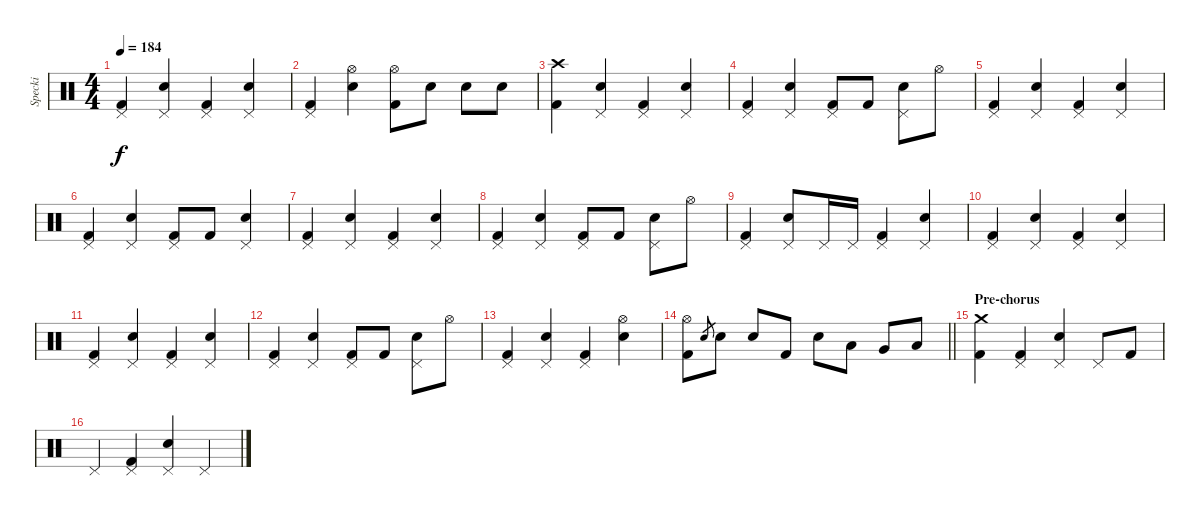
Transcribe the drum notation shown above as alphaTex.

\track ("Specki" "Specki") {instrument percussion}
\staff {score}
\articulation defaults
\ts (4 4)
\tempo 184
\clef neutral
\ks c
("Pedal Hi-Hat (hit)" "Kick (hit) 2").4{dy f} ("Pedal Hi-Hat (hit)" "Electric Snare (hit)").4 ("Pedal Hi-Hat (hit)" "Kick (hit) 2").4 ("Pedal Hi-Hat (hit)" "Electric Snare (hit)").4 |
("Pedal Hi-Hat (hit)" "Kick (hit) 2").4 ("Hi-Hat (open)" "Electric Snare (hit)").4 ("Hi-Hat (open)" "Kick (hit) 2").8 "Electric Snare (hit)".8 "Electric Snare (hit)".8 "Electric Snare (hit)".8 |
("Crash high (hit)" "Kick (hit) 2").4 ("Pedal Hi-Hat (hit)" "Electric Snare (hit)").4 ("Pedal Hi-Hat (hit)" "Kick (hit) 2").4 ("Pedal Hi-Hat (hit)" "Electric Snare (hit)").4 |
("Pedal Hi-Hat (hit)" "Kick (hit) 2").4 ("Pedal Hi-Hat (hit)" "Electric Snare (hit)").4 ("Pedal Hi-Hat (hit)" "Kick (hit) 2").8 "Kick (hit) 2".8 ("Pedal Hi-Hat (hit)" "Electric Snare (hit)").8 "Hi-Hat (open)".8 |
("Pedal Hi-Hat (hit)" "Kick (hit) 2").4 ("Pedal Hi-Hat (hit)" "Electric Snare (hit)").4 ("Pedal Hi-Hat (hit)" "Kick (hit) 2").4 ("Pedal Hi-Hat (hit)" "Electric Snare (hit)").4 |
("Pedal Hi-Hat (hit)" "Kick (hit) 2").4 ("Pedal Hi-Hat (hit)" "Electric Snare (hit)").4 ("Pedal Hi-Hat (hit)" "Kick (hit) 2").8 "Kick (hit) 2".8 ("Pedal Hi-Hat (hit)" "Electric Snare (hit)").4 |
("Pedal Hi-Hat (hit)" "Kick (hit) 2").4 ("Pedal Hi-Hat (hit)" "Electric Snare (hit)").4 ("Pedal Hi-Hat (hit)" "Kick (hit) 2").4 ("Pedal Hi-Hat (hit)" "Electric Snare (hit)").4 |
("Pedal Hi-Hat (hit)" "Kick (hit) 2").4 ("Pedal Hi-Hat (hit)" "Electric Snare (hit)").4 ("Pedal Hi-Hat (hit)" "Kick (hit) 2").8 "Kick (hit) 2".8 ("Pedal Hi-Hat (hit)" "Electric Snare (hit)").8 "Hi-Hat (open)".8 |
("Pedal Hi-Hat (hit)" "Kick (hit) 2").4 ("Pedal Hi-Hat (hit)" "Electric Snare (hit)").8 "Pedal Hi-Hat (hit)".16 "Pedal Hi-Hat (hit)".16 ("Pedal Hi-Hat (hit)" "Kick (hit) 2").4 ("Pedal Hi-Hat (hit)" "Electric Snare (hit)").4 |
("Pedal Hi-Hat (hit)" "Kick (hit) 2").4 ("Pedal Hi-Hat (hit)" "Electric Snare (hit)").4 ("Pedal Hi-Hat (hit)" "Kick (hit) 2").4 ("Pedal Hi-Hat (hit)" "Electric Snare (hit)").4 |
("Pedal Hi-Hat (hit)" "Kick (hit) 2").4 ("Pedal Hi-Hat (hit)" "Electric Snare (hit)").4 ("Pedal Hi-Hat (hit)" "Kick (hit) 2").4 ("Pedal Hi-Hat (hit)" "Electric Snare (hit)").4 |
("Pedal Hi-Hat (hit)" "Kick (hit) 2").4 ("Pedal Hi-Hat (hit)" "Electric Snare (hit)").4 ("Pedal Hi-Hat (hit)" "Kick (hit) 2").8 "Kick (hit) 2".8 ("Pedal Hi-Hat (hit)" "Electric Snare (hit)").8 "Hi-Hat (open)".8 |
("Pedal Hi-Hat (hit)" "Kick (hit) 2").4 ("Pedal Hi-Hat (hit)" "Electric Snare (hit)").4 ("Pedal Hi-Hat (hit)" "Kick (hit) 2").4 ("Hi-Hat (open)" "Electric Snare (hit)").4 |
\barLineRight lightlight
("Hi-Hat (open)" "Kick (hit) 2").8 "Electric Snare (hit)".8{gr} "Electric Snare (hit)".8 "Electric Snare (hit)".8 "Kick (hit) 2".8 "Electric Snare (hit)".8 "Low Tom (hit)".8 "Very Low Tom (hit)".8 "Low Floor Tom (hit)".8 |
\section ("" "Pre-chorus")
("Crash medium (hit)" "Kick (hit) 2").4 ("Pedal Hi-Hat (hit)" "Kick (hit) 2").4 ("Pedal Hi-Hat (hit)" "Electric Snare (hit)").4 "Pedal Hi-Hat (hit)".8 "Kick (hit) 2".8 |
"Pedal Hi-Hat (hit)".4 ("Pedal Hi-Hat (hit)" "Kick (hit) 2").4 ("Pedal Hi-Hat (hit)" "Electric Snare (hit)").4 "Pedal Hi-Hat (hit)".4
